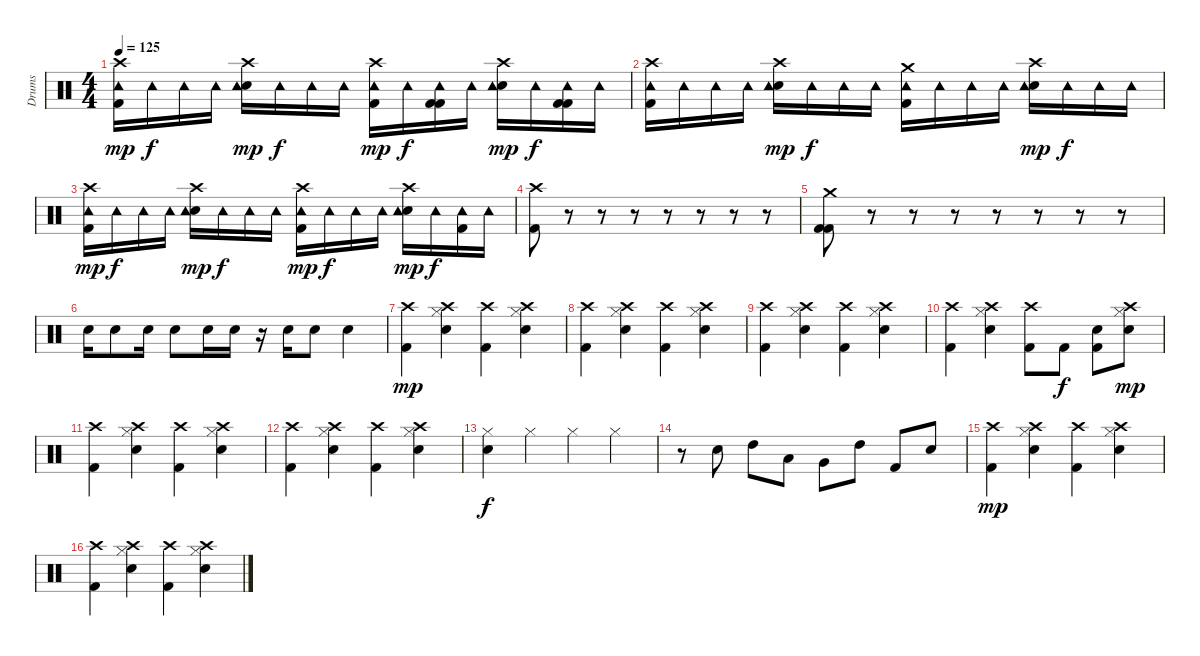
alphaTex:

\track ("Drums" "Drums") {instrument percussion}
\staff {score}
\articulation defaults
\ts (4 4)
\tempo 125
\clef neutral
\ks c
("Crash high (hit)" "Kick (hit) 2" "Tambourine (hit)").16{dy mp} "Tambourine (hit)".16{dy f} "Tambourine (hit)".16 "Tambourine (hit)".16 ("Crash high (hit)" "Snare (hit) 2" "Tambourine (hit)").16{dy mp} "Tambourine (hit)".16{dy f} "Tambourine (hit)".16 "Tambourine (hit)".16 ("Crash high (hit)" "Kick (hit) 2" "Tambourine (hit)").16{dy mp} "Tambourine (hit)".16{dy f} ("Kick (hit) 2" "Kick (hit) 2" "Tambourine (hit)").16 "Tambourine (hit)".16 ("Crash high (hit)" "Snare (hit) 2" "Tambourine (hit)").16{dy mp} "Tambourine (hit)".16{dy f} ("Kick (hit) 2" "Tambourine (hit)" "Kick (hit) 2").16 "Tambourine (hit)".16 |
("Crash high (hit)" "Kick (hit) 2" "Tambourine (hit)").16 "Tambourine (hit)".16 "Tambourine (hit)".16 "Tambourine (hit)".16 ("Crash high (hit)" "Snare (hit) 2" "Tambourine (hit)").16{dy mp} "Tambourine (hit)".16{dy f} "Tambourine (hit)".16 "Tambourine (hit)".16 ("Crash medium (hit)" "Kick (hit) 2" "Tambourine (hit)").16 "Tambourine (hit)".16 "Tambourine (hit)".16 "Tambourine (hit)".16 ("Crash high (hit)" "Snare (hit) 2" "Tambourine (hit)").16{dy mp} "Tambourine (hit)".16{dy f} "Tambourine (hit)".16 "Tambourine (hit)".16 |
("Crash high (hit)" "Kick (hit) 2" "Tambourine (hit)").16{dy mp} "Tambourine (hit)".16{dy f} "Tambourine (hit)".16 "Tambourine (hit)".16 ("Crash high (hit)" "Snare (hit) 2" "Tambourine (hit)").16{dy mp} "Tambourine (hit)".16{dy f} "Tambourine (hit)".16 "Tambourine (hit)".16 ("Crash high (hit)" "Kick (hit) 2" "Tambourine (hit)").16{dy mp} "Tambourine (hit)".16{dy f} "Tambourine (hit)".16 "Tambourine (hit)".16 ("Crash high (hit)" "Snare (hit) 2" "Tambourine (hit)").16{dy mp} "Tambourine (hit)".16{dy f} ("Kick (hit) 2" "Tambourine (hit)").16 "Tambourine (hit)".16 |
("Crash high (hit)" "Kick (hit) 2").8 r.8 r.8 r.8 r.8 r.8 r.8 r.8 |
("Crash medium (hit)" "Kick (hit) 2" "Kick (hit) 2").8 r.8 r.8 r.8 r.8 r.8 r.8 r.8 |
"Snare (hit) 2".16 "Snare (hit) 2".8 "Snare (hit) 2".16 "Snare (hit) 2".8 "Snare (hit) 2".16 "Snare (hit) 2".16 r.16 "Snare (hit) 2".16 "Snare (hit) 2".8 "Snare (hit) 2".4 |
("Crash high (hit)" "Kick (hit) 2").4{dy mp} ("Crash high (hit)" "Snare (hit) 2" "Hi-Hat (closed)").4 ("Crash high (hit)" "Kick (hit) 2").4 ("Crash high (hit)" "Snare (hit) 2" "Hi-Hat (closed)").4 |
("Crash high (hit)" "Kick (hit) 2").4 ("Crash high (hit)" "Snare (hit) 2" "Hi-Hat (closed)").4 ("Crash high (hit)" "Kick (hit) 2").4 ("Crash high (hit)" "Snare (hit) 2" "Hi-Hat (closed)").4 |
("Crash high (hit)" "Kick (hit) 2").4 ("Crash high (hit)" "Snare (hit) 2" "Hi-Hat (closed)").4 ("Crash high (hit)" "Kick (hit) 2").4 ("Crash high (hit)" "Snare (hit) 2" "Hi-Hat (closed)").4 |
("Crash high (hit)" "Kick (hit) 2").4 ("Crash high (hit)" "Snare (hit) 2" "Hi-Hat (closed)").4 ("Crash high (hit)" "Kick (hit) 2").8 "Kick (hit) 2".8{dy f} ("Snare (hit) 2" "Kick (hit) 2").8 ("Crash high (hit)" "Snare (hit) 2" "Hi-Hat (closed)").8{dy mp} |
("Crash high (hit)" "Kick (hit) 2").4 ("Crash high (hit)" "Snare (hit) 2" "Hi-Hat (closed)").4 ("Crash high (hit)" "Kick (hit) 2").4 ("Crash high (hit)" "Snare (hit) 2" "Hi-Hat (closed)").4 |
("Crash high (hit)" "Kick (hit) 2").4 ("Crash high (hit)" "Snare (hit) 2" "Hi-Hat (closed)").4 ("Crash high (hit)" "Kick (hit) 2").4 ("Crash high (hit)" "Snare (hit) 2" "Hi-Hat (closed)").4 |
("Hi-Hat (closed)" "Snare (hit) 2").4{dy f} "Hi-Hat (closed)".4 "Hi-Hat (closed)".4 "Hi-Hat (closed)".4 |
r.8 "Snare (hit) 2".8 "High Tom (hit)".8 "Low Tom (hit)".8 "Very Low Tom (hit)".8 "High Tom (hit)".8 "Kick (hit) 2".8 "Snare (hit) 2".8 |
("Crash high (hit)" "Kick (hit) 2").4{dy mp} ("Crash high (hit)" "Snare (hit) 2" "Hi-Hat (closed)").4 ("Crash high (hit)" "Kick (hit) 2").4 ("Crash high (hit)" "Snare (hit) 2" "Hi-Hat (closed)").4 |
("Crash high (hit)" "Kick (hit) 2").4 ("Crash high (hit)" "Snare (hit) 2" "Hi-Hat (closed)").4 ("Crash high (hit)" "Kick (hit) 2").4 ("Crash high (hit)" "Snare (hit) 2" "Hi-Hat (closed)").4
